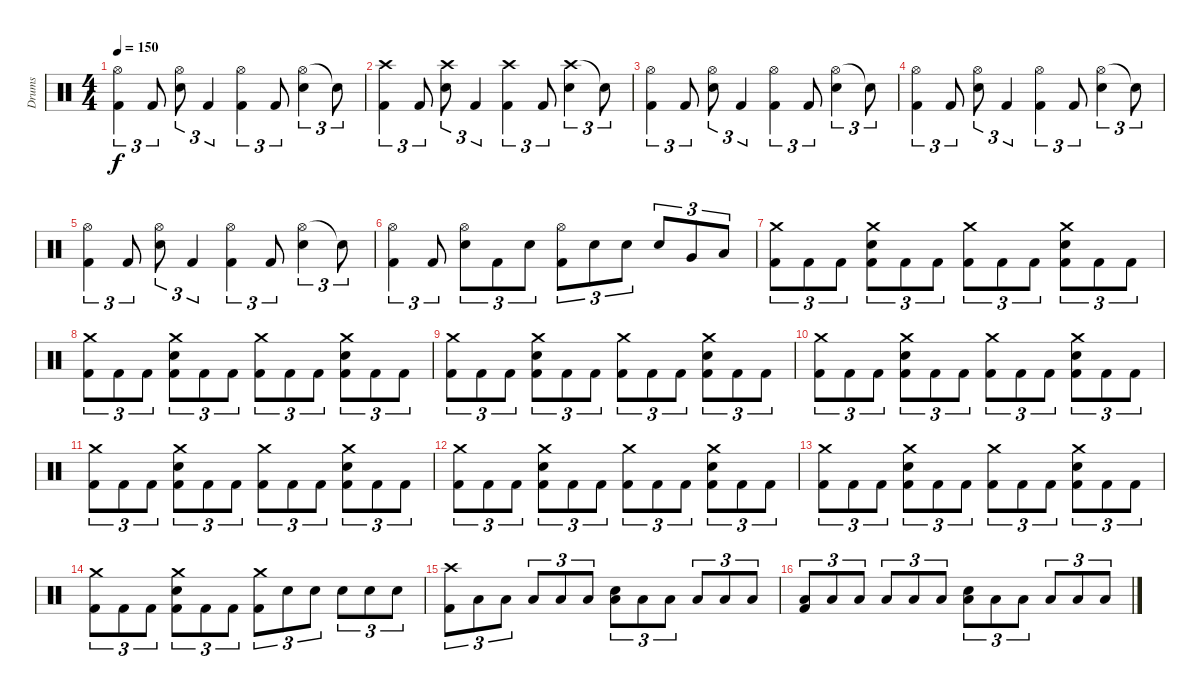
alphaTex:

\track ("Drums" "Drums") {instrument percussion}
\staff {score}
\articulation defaults
\ts (4 4)
\tempo 150
\clef neutral
\ks c
("Hi-Hat (open)" "Kick (hit) 2").4{tu (3 2) dy f} "Kick (hit) 2".8{tu (3 2)} ("Hi-Hat (open)" "Electric Snare (hit)").8{tu (3 2)} "Kick (hit) 2".4{tu (3 2)} ("Hi-Hat (open)" "Kick (hit) 2").4{tu (3 2)} "Kick (hit) 2".8{tu (3 2)} ("Hi-Hat (open)" "Electric Snare (hit)").4{tu (3 2)} "Snare (hit)"{t}.8{tu (3 2)} |
("Crash high (hit)" "Kick (hit) 2").4{tu (3 2)} "Kick (hit) 2".8{tu (3 2)} ("Crash high (hit)" "Electric Snare (hit)").8{tu (3 2)} "Kick (hit) 2".4{tu (3 2)} ("Crash high (hit)" "Kick (hit) 2").4{tu (3 2)} "Kick (hit) 2".8{tu (3 2)} ("Crash high (hit)" "Electric Snare (hit)").4{tu (3 2)} "Snare (hit)"{t}.8{tu (3 2)} |
("Hi-Hat (open)" "Kick (hit) 2").4{tu (3 2)} "Kick (hit) 2".8{tu (3 2)} ("Hi-Hat (open)" "Electric Snare (hit)").8{tu (3 2)} "Kick (hit) 2".4{tu (3 2)} ("Hi-Hat (open)" "Kick (hit) 2").4{tu (3 2)} "Kick (hit) 2".8{tu (3 2)} ("Hi-Hat (open)" "Electric Snare (hit)").4{tu (3 2)} "Snare (hit)"{t}.8{tu (3 2)} |
("Hi-Hat (open)" "Kick (hit) 2").4{tu (3 2)} "Kick (hit) 2".8{tu (3 2)} ("Hi-Hat (open)" "Electric Snare (hit)").8{tu (3 2)} "Kick (hit) 2".4{tu (3 2)} ("Hi-Hat (open)" "Kick (hit) 2").4{tu (3 2)} "Kick (hit) 2".8{tu (3 2)} ("Hi-Hat (open)" "Electric Snare (hit)").4{tu (3 2)} "Snare (hit)"{t}.8{tu (3 2)} |
("Hi-Hat (open)" "Kick (hit) 2").4{tu (3 2)} "Kick (hit) 2".8{tu (3 2)} ("Hi-Hat (open)" "Electric Snare (hit)").8{tu (3 2)} "Kick (hit) 2".4{tu (3 2)} ("Hi-Hat (open)" "Kick (hit) 2").4{tu (3 2)} "Kick (hit) 2".8{tu (3 2)} ("Hi-Hat (open)" "Electric Snare (hit)").4{tu (3 2)} "Snare (hit)"{t}.8{tu (3 2)} |
("Hi-Hat (open)" "Kick (hit) 2").4{tu (3 2)} "Kick (hit) 2".8{tu (3 2)} ("Hi-Hat (open)" "Electric Snare (hit)").8{tu (3 2)} "Kick (hit) 2".8{tu (3 2)} "Electric Snare (hit)".8{tu (3 2)} ("Hi-Hat (open)" "Kick (hit) 2").8{tu (3 2)} "Electric Snare (hit)".8{tu (3 2)} "Electric Snare (hit)".8{tu (3 2)} "Electric Snare (hit)".8{tu (3 2)} "Very Low Tom (hit)".8{tu (3 2)} "Low Floor Tom (hit)".8{tu (3 2)} |
("Crash medium (hit)" "Kick (hit) 2").8{tu (3 2)} "Kick (hit) 2".8{tu (3 2)} "Kick (hit) 2".8{tu (3 2)} ("Crash medium (hit)" "Electric Snare (hit)" "Kick (hit) 2").8{tu (3 2)} "Kick (hit) 2".8{tu (3 2)} "Kick (hit) 2".8{tu (3 2)} ("Crash medium (hit)" "Kick (hit) 2").8{tu (3 2)} "Kick (hit) 2".8{tu (3 2)} "Kick (hit) 2".8{tu (3 2)} ("Crash medium (hit)" "Electric Snare (hit)" "Kick (hit) 2").8{tu (3 2)} "Kick (hit) 2".8{tu (3 2)} "Kick (hit) 2".8{tu (3 2)} |
("Crash medium (hit)" "Kick (hit) 2").8{tu (3 2)} "Kick (hit) 2".8{tu (3 2)} "Kick (hit) 2".8{tu (3 2)} ("Crash medium (hit)" "Electric Snare (hit)" "Kick (hit) 2").8{tu (3 2)} "Kick (hit) 2".8{tu (3 2)} "Kick (hit) 2".8{tu (3 2)} ("Crash medium (hit)" "Kick (hit) 2").8{tu (3 2)} "Kick (hit) 2".8{tu (3 2)} "Kick (hit) 2".8{tu (3 2)} ("Crash medium (hit)" "Electric Snare (hit)" "Kick (hit) 2").8{tu (3 2)} "Kick (hit) 2".8{tu (3 2)} "Kick (hit) 2".8{tu (3 2)} |
("Crash medium (hit)" "Kick (hit) 2").8{tu (3 2)} "Kick (hit) 2".8{tu (3 2)} "Kick (hit) 2".8{tu (3 2)} ("Crash medium (hit)" "Electric Snare (hit)" "Kick (hit) 2").8{tu (3 2)} "Kick (hit) 2".8{tu (3 2)} "Kick (hit) 2".8{tu (3 2)} ("Crash medium (hit)" "Kick (hit) 2").8{tu (3 2)} "Kick (hit) 2".8{tu (3 2)} "Kick (hit) 2".8{tu (3 2)} ("Crash medium (hit)" "Electric Snare (hit)" "Kick (hit) 2").8{tu (3 2)} "Kick (hit) 2".8{tu (3 2)} "Kick (hit) 2".8{tu (3 2)} |
("Crash medium (hit)" "Kick (hit) 2").8{tu (3 2)} "Kick (hit) 2".8{tu (3 2)} "Kick (hit) 2".8{tu (3 2)} ("Crash medium (hit)" "Electric Snare (hit)" "Kick (hit) 2").8{tu (3 2)} "Kick (hit) 2".8{tu (3 2)} "Kick (hit) 2".8{tu (3 2)} ("Crash medium (hit)" "Kick (hit) 2").8{tu (3 2)} "Kick (hit) 2".8{tu (3 2)} "Kick (hit) 2".8{tu (3 2)} ("Crash medium (hit)" "Electric Snare (hit)" "Kick (hit) 2").8{tu (3 2)} "Kick (hit) 2".8{tu (3 2)} "Kick (hit) 2".8{tu (3 2)} |
("Crash medium (hit)" "Kick (hit) 2").8{tu (3 2)} "Kick (hit) 2".8{tu (3 2)} "Kick (hit) 2".8{tu (3 2)} ("Crash medium (hit)" "Electric Snare (hit)" "Kick (hit) 2").8{tu (3 2)} "Kick (hit) 2".8{tu (3 2)} "Kick (hit) 2".8{tu (3 2)} ("Crash medium (hit)" "Kick (hit) 2").8{tu (3 2)} "Kick (hit) 2".8{tu (3 2)} "Kick (hit) 2".8{tu (3 2)} ("Crash medium (hit)" "Electric Snare (hit)" "Kick (hit) 2").8{tu (3 2)} "Kick (hit) 2".8{tu (3 2)} "Kick (hit) 2".8{tu (3 2)} |
("Crash medium (hit)" "Kick (hit) 2").8{tu (3 2)} "Kick (hit) 2".8{tu (3 2)} "Kick (hit) 2".8{tu (3 2)} ("Crash medium (hit)" "Electric Snare (hit)" "Kick (hit) 2").8{tu (3 2)} "Kick (hit) 2".8{tu (3 2)} "Kick (hit) 2".8{tu (3 2)} ("Crash medium (hit)" "Kick (hit) 2").8{tu (3 2)} "Kick (hit) 2".8{tu (3 2)} "Kick (hit) 2".8{tu (3 2)} ("Crash medium (hit)" "Electric Snare (hit)" "Kick (hit) 2").8{tu (3 2)} "Kick (hit) 2".8{tu (3 2)} "Kick (hit) 2".8{tu (3 2)} |
("Crash medium (hit)" "Kick (hit) 2").8{tu (3 2)} "Kick (hit) 2".8{tu (3 2)} "Kick (hit) 2".8{tu (3 2)} ("Crash medium (hit)" "Electric Snare (hit)" "Kick (hit) 2").8{tu (3 2)} "Kick (hit) 2".8{tu (3 2)} "Kick (hit) 2".8{tu (3 2)} ("Crash medium (hit)" "Kick (hit) 2").8{tu (3 2)} "Kick (hit) 2".8{tu (3 2)} "Kick (hit) 2".8{tu (3 2)} ("Crash medium (hit)" "Electric Snare (hit)" "Kick (hit) 2").8{tu (3 2)} "Kick (hit) 2".8{tu (3 2)} "Kick (hit) 2".8{tu (3 2)} |
("Crash medium (hit)" "Kick (hit) 2").8{tu (3 2)} "Kick (hit) 2".8{tu (3 2)} "Kick (hit) 2".8{tu (3 2)} ("Crash medium (hit)" "Electric Snare (hit)" "Kick (hit) 2").8{tu (3 2)} "Kick (hit) 2".8{tu (3 2)} "Kick (hit) 2".8{tu (3 2)} ("Crash medium (hit)" "Kick (hit) 2").8{tu (3 2)} "Electric Snare (hit)".8{tu (3 2)} "Electric Snare (hit)".8{tu (3 2)} "Electric Snare (hit)".8{tu (3 2)} "Electric Snare (hit)".8{tu (3 2)} "Electric Snare (hit)".8{tu (3 2)} |
("Crash high (hit)" "Kick (hit) 2").8{tu (3 2)} "Low Floor Tom (hit)".8{tu (3 2)} "Low Floor Tom (hit)".8{tu (3 2)} "Low Floor Tom (hit)".8{tu (3 2)} "Low Floor Tom (hit)".8{tu (3 2)} "Low Floor Tom (hit)".8{tu (3 2)} ("Electric Snare (hit)" "Low Floor Tom (hit)").8{tu (3 2)} "Low Floor Tom (hit)".8{tu (3 2)} "Low Floor Tom (hit)".8{tu (3 2)} "Low Floor Tom (hit)".8{tu (3 2)} "Low Floor Tom (hit)".8{tu (3 2)} "Low Floor Tom (hit)".8{tu (3 2)} |
("Kick (hit) 2" "Low Floor Tom (hit)").8{tu (3 2)} "Low Floor Tom (hit)".8{tu (3 2)} "Low Floor Tom (hit)".8{tu (3 2)} "Low Floor Tom (hit)".8{tu (3 2)} "Low Floor Tom (hit)".8{tu (3 2)} "Low Floor Tom (hit)".8{tu (3 2)} ("Electric Snare (hit)" "Low Floor Tom (hit)").8{tu (3 2)} "Low Floor Tom (hit)".8{tu (3 2)} "Low Floor Tom (hit)".8{tu (3 2)} "Low Floor Tom (hit)".8{tu (3 2)} "Low Floor Tom (hit)".8{tu (3 2)} "Low Floor Tom (hit)".8{tu (3 2)}
